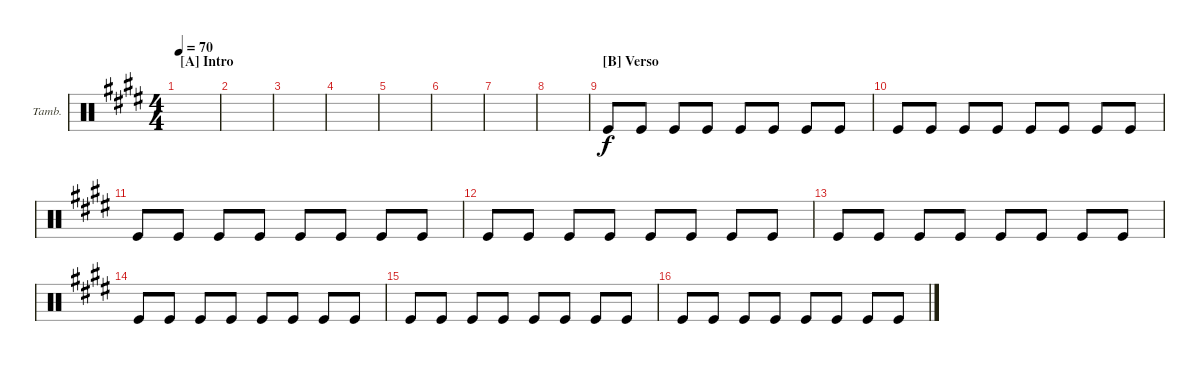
\defaultSystemsLayout 4
\bracketExtendMode groupsimilarinstruments
\firstSystemTrackNameOrientation horizontal
\otherSystemsTrackNameOrientation horizontal
\track ("Tambourine" "Tamb.") {instrument percussion}
\staff {score}
\articulation defaults
\ts (4 4)
\section ("A" "Intro")
\tempo 70
\clef neutral
\scale
0.7
\ks e
|
\scale
0.3 |
\scale
0.5 |
\scale
0.5 |
\scale
0.5 |
\scale
0.5 |
\scale
0.5 |
\scale
0.5 |
\section ("B" "Verso")
\scale
0.5 "Kick (hit)".8 "Kick (hit)".8 "Kick (hit)".8 "Kick (hit)".8 "Kick (hit)".8 "Kick (hit)".8 "Kick (hit)".8 "Kick (hit)".8 |
\scale
0.5 "Kick (hit)".8 "Kick (hit)".8 "Kick (hit)".8 "Kick (hit)".8 "Kick (hit)".8 "Kick (hit)".8 "Kick (hit)".8 "Kick (hit)".8 |
\scale
0.5 "Kick (hit)".8 "Kick (hit)".8 "Kick (hit)".8 "Kick (hit)".8 "Kick (hit)".8 "Kick (hit)".8 "Kick (hit)".8 "Kick (hit)".8 |
\scale
0.5 "Kick (hit)".8 "Kick (hit)".8 "Kick (hit)".8 "Kick (hit)".8 "Kick (hit)".8 "Kick (hit)".8 "Kick (hit)".8 "Kick (hit)".8 |
\scale
0.5 "Kick (hit)".8 "Kick (hit)".8 "Kick (hit)".8 "Kick (hit)".8 "Kick (hit)".8 "Kick (hit)".8 "Kick (hit)".8 "Kick (hit)".8 |
\scale
0.5 "Kick (hit)".8 "Kick (hit)".8 "Kick (hit)".8 "Kick (hit)".8 "Kick (hit)".8 "Kick (hit)".8 "Kick (hit)".8 "Kick (hit)".8 |
\scale
0.5 "Kick (hit)".8 "Kick (hit)".8 "Kick (hit)".8 "Kick (hit)".8 "Kick (hit)".8 "Kick (hit)".8 "Kick (hit)".8 "Kick (hit)".8 |
\scale
0.5 "Kick (hit)".8 "Kick (hit)".8 "Kick (hit)".8 "Kick (hit)".8 "Kick (hit)".8 "Kick (hit)".8 "Kick (hit)".8 "Kick (hit)".8
